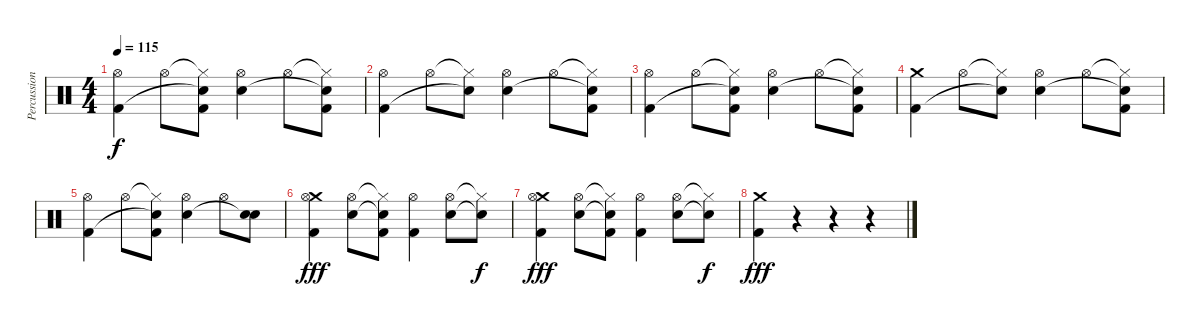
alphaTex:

\track ("Percussion" "Percussion") {instrument percussion}
\staff {score}
\articulation defaults
\ts (4 4)
\tempo 115
\clef neutral
\ks c
("Hi-Hat (open)" "Kick (hit) 2").4{dy f} "Hi-Hat (open)".8 ("Hi-Hat (closed)"{t} "Snare (hit) 2"{t} "Kick (hit) 2").8 ("Hi-Hat (open)" "Snare (hit) 2").4 "Hi-Hat (open)".8 ("Hi-Hat (closed)"{t} "Snare (hit) 2"{t} "Kick (hit) 2").8 |
("Hi-Hat (open)" "Kick (hit) 2").4 "Hi-Hat (open)".8 ("Hi-Hat (closed)"{t} "Snare (hit) 2"{t}).8 ("Hi-Hat (open)" "Snare (hit) 2").4 "Hi-Hat (open)".8 ("Hi-Hat (closed)"{t} "Snare (hit) 2"{t} "Kick (hit) 2").8 |
("Hi-Hat (open)" "Kick (hit) 2").4 "Hi-Hat (open)".8 ("Hi-Hat (closed)"{t} "Snare (hit) 2"{t} "Kick (hit) 2").8 ("Hi-Hat (open)" "Snare (hit) 2").4 "Hi-Hat (open)".8 ("Hi-Hat (closed)"{t} "Snare (hit) 2"{t} "Kick (hit) 2").8 |
("Crash medium (hit)" "Kick (hit) 2").4 "Hi-Hat (open)".8 ("Hi-Hat (closed)"{t} "Snare (hit) 2"{t}).8 ("Hi-Hat (open)" "Snare (hit) 2").4 "Hi-Hat (open)".8 ("Hi-Hat (closed)"{t} "Snare (hit) 2"{t} "Kick (hit) 2").8 |
("Hi-Hat (open)" "Kick (hit) 2").4 "Hi-Hat (open)".8 ("Hi-Hat (closed)"{t} "Snare (hit) 2"{t} "Kick (hit) 2").8 ("Hi-Hat (open)" "Snare (hit) 2").4 "Hi-Hat (open)".8 ("Snare (hit) 2" "Snare (hit) 2"{t}).8 |
("Crash medium (hit)" "Hi-Hat (open)" "Kick (hit) 2").4{dy fff} ("Hi-Hat (open)" "Snare (hit) 2").8 ("Hi-Hat (closed)"{t} "Snare (hit) 2"{t} "Kick (hit) 2").8 ("Hi-Hat (open)" "Kick (hit) 2").4 ("Hi-Hat (open)" "Snare (hit) 2").8 ("Hi-Hat (closed)"{t} "Snare (hit) 2"{t}).8{dy f} |
("Crash medium (hit)" "Hi-Hat (open)" "Kick (hit) 2").4{dy fff} ("Hi-Hat (open)" "Snare (hit) 2").8 ("Hi-Hat (closed)"{t} "Snare (hit) 2"{t} "Kick (hit) 2").8 ("Hi-Hat (open)" "Kick (hit) 2").4 ("Hi-Hat (open)" "Snare (hit) 2").8 ("Hi-Hat (closed)"{t} "Snare (hit) 2"{t}).8{dy f} |
("Crash medium (hit)" "Kick (hit) 2").4{dy fff} r.4 r.4 r.4
